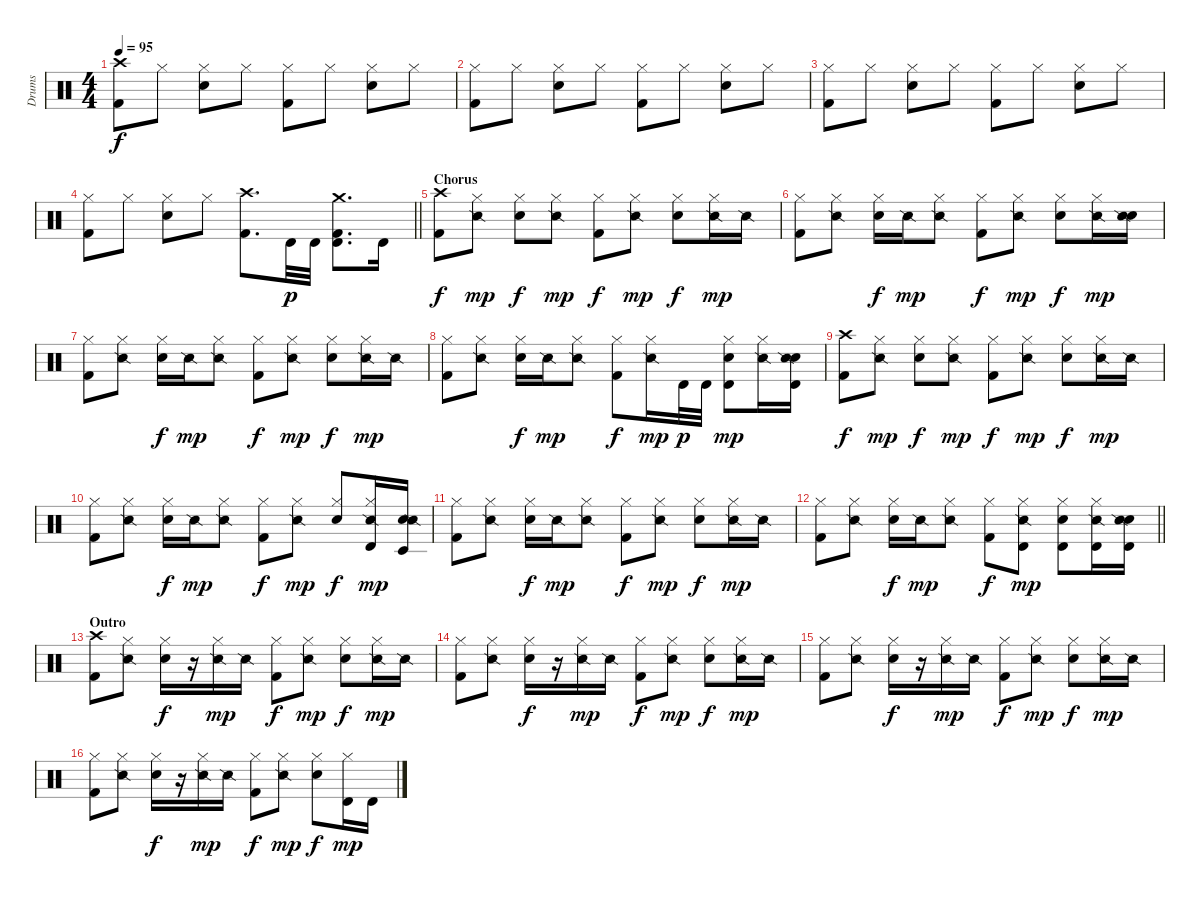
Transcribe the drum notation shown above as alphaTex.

\track ("Drums" "Drums") {instrument percussion}
\staff {score}
\articulation defaults
\ts (4 4)
\tempo 95
\clef neutral
\ks c
("Crash high (hit)" "Kick (hit) 2").8{dy f} "Hi-Hat (closed)".8 ("Hi-Hat (closed)" "Snare (hit) 2").8 "Hi-Hat (closed)".8 ("Hi-Hat (closed)" "Kick (hit) 2").8 "Hi-Hat (closed)".8 ("Hi-Hat (closed)" "Snare (hit) 2").8 "Hi-Hat (closed)".8 |
("Hi-Hat (closed)" "Kick (hit) 2").8 "Hi-Hat (closed)".8 ("Hi-Hat (closed)" "Snare (hit) 2").8 "Hi-Hat (closed)".8 ("Hi-Hat (closed)" "Kick (hit) 2").8 "Hi-Hat (closed)".8 ("Hi-Hat (closed)" "Snare (hit) 2").8 "Hi-Hat (closed)".8 |
("Hi-Hat (closed)" "Kick (hit) 2").8 "Hi-Hat (closed)".8 ("Hi-Hat (closed)" "Snare (hit) 2").8 "Hi-Hat (closed)".8 ("Hi-Hat (closed)" "Kick (hit) 2").8 "Hi-Hat (closed)".8 ("Hi-Hat (closed)" "Snare (hit) 2").8 "Hi-Hat (closed)".8 |
\barLineRight lightlight
("Hi-Hat (closed)" "Kick (hit) 2").8 "Hi-Hat (closed)".8 ("Hi-Hat (closed)" "Snare (hit) 2").8 "Hi-Hat (closed)".8 ("Crash high (hit)" "Kick (hit) 2").8{d} "Timbale high (hit)".32{dy p} "Timbale high (hit)".32 ("Crash medium (hit)" "Kick (hit) 2" "Timbale high (hit)").8{d} "Timbale high (hit)".16 |
\section ("" "Chorus")
("Crash high (hit)" "Kick (hit) 2").8{dy f} ("Hi-Hat (closed)" "Snare (side stick) 2").8{dy mp} ("Hi-Hat (closed)" "Snare (hit) 2").8{dy f} ("Hi-Hat (closed)" "Snare (side stick) 2").8{dy mp} ("Hi-Hat (closed)" "Kick (hit) 2").8{dy f} ("Hi-Hat (closed)" "Snare (side stick) 2").8{dy mp} ("Hi-Hat (closed)" "Snare (hit) 2").8{dy f} ("Hi-Hat (closed)" "Snare (side stick) 2").16{dy mp} "Snare (side stick) 2".16 |
("Hi-Hat (closed)" "Kick (hit) 2").8 ("Hi-Hat (closed)" "Snare (side stick) 2").8 ("Hi-Hat (closed)" "Snare (hit) 2").16{dy f} "Snare (side stick) 2".16{dy mp} ("Hi-Hat (closed)" "Snare (side stick) 2").8 ("Hi-Hat (closed)" "Kick (hit) 2").8{dy f} ("Hi-Hat (closed)" "Snare (side stick) 2").8{dy mp} ("Hi-Hat (closed)" "Snare (hit) 2").8{dy f} ("Hi-Hat (closed)" "Snare (side stick) 2").16{dy mp} ("Snare (hit) 2" "Snare (side stick) 2").16 |
("Hi-Hat (closed)" "Kick (hit) 2").8 ("Hi-Hat (closed)" "Snare (side stick) 2").8 ("Hi-Hat (closed)" "Snare (hit) 2").16{dy f} "Snare (side stick) 2".16{dy mp} ("Hi-Hat (closed)" "Snare (side stick) 2").8 ("Hi-Hat (closed)" "Kick (hit) 2").8{dy f} ("Hi-Hat (closed)" "Snare (side stick) 2").8{dy mp} ("Hi-Hat (closed)" "Snare (hit) 2").8{dy f} ("Hi-Hat (closed)" "Snare (side stick) 2").16{dy mp} "Snare (side stick) 2".16 |
("Hi-Hat (closed)" "Kick (hit) 2").8 ("Hi-Hat (closed)" "Snare (side stick) 2").8 ("Hi-Hat (closed)" "Snare (hit) 2").16{dy f} "Snare (side stick) 2".16{dy mp} ("Hi-Hat (closed)" "Snare (side stick) 2").8 ("Hi-Hat (closed)" "Kick (hit) 2").8{dy f} ("Hi-Hat (closed)" "Snare (side stick) 2").16{dy mp} "Timbale high (hit)".32{dy p} "Timbale high (hit)".32 ("Hi-Hat (closed)" "Snare (hit) 2" "Timbale high (hit)").8{dy mp} ("Hi-Hat (closed)" "Snare (side stick) 2").16 ("Snare (hit) 2" "Timbale high (hit)" "Snare (side stick) 2").16 |
("Crash high (hit)" "Kick (hit) 2").8{dy f} ("Hi-Hat (closed)" "Snare (side stick) 2").8{dy mp} ("Hi-Hat (closed)" "Snare (hit) 2").8{dy f} ("Hi-Hat (closed)" "Snare (side stick) 2").8{dy mp} ("Hi-Hat (closed)" "Kick (hit) 2").8{dy f} ("Hi-Hat (closed)" "Snare (side stick) 2").8{dy mp} ("Hi-Hat (closed)" "Snare (hit) 2").8{dy f} ("Hi-Hat (closed)" "Snare (side stick) 2").16{dy mp} "Snare (side stick) 2".16 |
("Hi-Hat (closed)" "Kick (hit) 2").8 ("Hi-Hat (closed)" "Snare (side stick) 2").8 ("Hi-Hat (closed)" "Snare (hit) 2").16{dy f} "Snare (side stick) 2".16{dy mp} ("Hi-Hat (closed)" "Snare (side stick) 2").8 ("Hi-Hat (closed)" "Kick (hit) 2").8{dy f} ("Hi-Hat (closed)" "Snare (side stick) 2").8{dy mp} ("Hi-Hat (closed)" "Snare (hit) 2").8{dy f} ("Hi-Hat (closed)" "Timbale high (hit)" "Snare (side stick) 2").16{dy mp} ("Snare (hit) 2" "Timbale low (hit)" "Snare (side stick) 2").16 |
("Hi-Hat (closed)" "Kick (hit) 2").8 ("Hi-Hat (closed)" "Snare (side stick) 2").8 ("Hi-Hat (closed)" "Snare (hit) 2").16{dy f} "Snare (side stick) 2".16{dy mp} ("Hi-Hat (closed)" "Snare (side stick) 2").8 ("Hi-Hat (closed)" "Kick (hit) 2").8{dy f} ("Hi-Hat (closed)" "Snare (side stick) 2").8{dy mp} ("Hi-Hat (closed)" "Snare (hit) 2").8{dy f} ("Hi-Hat (closed)" "Snare (side stick) 2").16{dy mp} "Snare (side stick) 2".16 |
\barLineRight lightlight
("Hi-Hat (closed)" "Kick (hit) 2").8 ("Hi-Hat (closed)" "Snare (side stick) 2").8 ("Hi-Hat (closed)" "Snare (hit) 2").16{dy f} "Snare (side stick) 2".16{dy mp} ("Hi-Hat (closed)" "Snare (side stick) 2").8 ("Hi-Hat (closed)" "Kick (hit) 2").8{dy f} ("Hi-Hat (closed)" "Timbale high (hit)" "Snare (side stick) 2").8{dy mp} ("Hi-Hat (closed)" "Snare (hit) 2" "Timbale high (hit)").8 ("Hi-Hat (closed)" "Timbale high (hit)" "Snare (side stick) 2").16 ("Snare (hit) 2" "Timbale high (hit)" "Snare (side stick) 2").16 |
\section ("" "Outro")
("Crash high (hit)" "Kick (hit) 2").8 ("Hi-Hat (closed)" "Snare (side stick) 2").8 ("Hi-Hat (closed)" "Snare (hit) 2").16{dy f} r.16 ("Hi-Hat (closed)" "Snare (side stick) 2").16{dy mp} "Snare (side stick) 2".16 ("Hi-Hat (closed)" "Kick (hit) 2").8{dy f} ("Hi-Hat (closed)" "Snare (side stick) 2").8{dy mp} ("Hi-Hat (closed)" "Snare (hit) 2").8{dy f} ("Hi-Hat (closed)" "Snare (side stick) 2").16{dy mp} "Snare (side stick) 2".16 |
("Hi-Hat (closed)" "Kick (hit) 2").8 ("Hi-Hat (closed)" "Snare (side stick) 2").8 ("Hi-Hat (closed)" "Snare (hit) 2").16{dy f} r.16 ("Hi-Hat (closed)" "Snare (side stick) 2").16{dy mp} "Snare (side stick) 2".16 ("Hi-Hat (closed)" "Kick (hit) 2").8{dy f} ("Hi-Hat (closed)" "Snare (side stick) 2").8{dy mp} ("Hi-Hat (closed)" "Snare (hit) 2").8{dy f} ("Hi-Hat (closed)" "Snare (side stick) 2").16{dy mp} "Snare (side stick) 2".16 |
("Hi-Hat (closed)" "Kick (hit) 2").8 ("Hi-Hat (closed)" "Snare (side stick) 2").8 ("Hi-Hat (closed)" "Snare (hit) 2").16{dy f} r.16 ("Hi-Hat (closed)" "Snare (side stick) 2").16{dy mp} "Snare (side stick) 2".16 ("Hi-Hat (closed)" "Kick (hit) 2").8{dy f} ("Hi-Hat (closed)" "Snare (side stick) 2").8{dy mp} ("Hi-Hat (closed)" "Snare (hit) 2").8{dy f} ("Hi-Hat (closed)" "Snare (side stick) 2").16{dy mp} "Snare (side stick) 2".16 |
("Hi-Hat (closed)" "Kick (hit) 2").8 ("Hi-Hat (closed)" "Snare (side stick) 2").8 ("Hi-Hat (closed)" "Snare (hit) 2").16{dy f} r.16 ("Hi-Hat (closed)" "Snare (side stick) 2").16{dy mp} "Snare (side stick) 2".16 ("Hi-Hat (closed)" "Kick (hit) 2").8{dy f} ("Hi-Hat (closed)" "Snare (side stick) 2").8{dy mp} ("Hi-Hat (closed)" "Snare (hit) 2").8{dy f} ("Hi-Hat (closed)" "Timbale high (hit)").16{dy mp} "Timbale high (hit)".16
